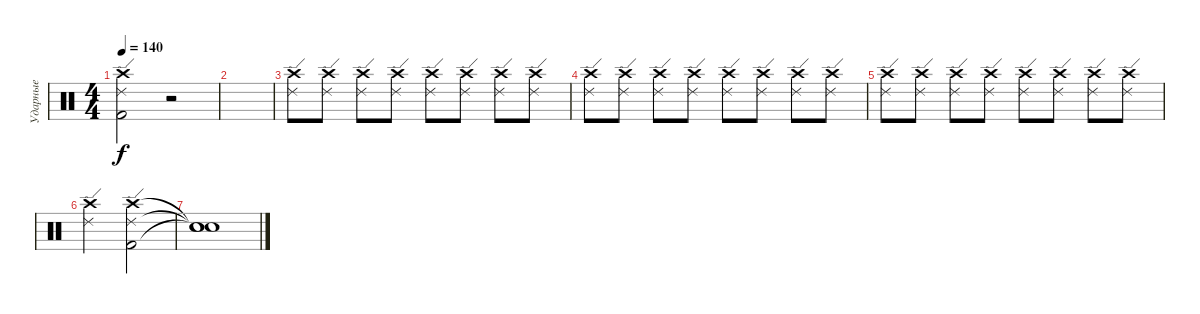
\track ("Ударные" "Ударные") {instrument percussion}
\staff {score}
\articulation defaults
\ts (4 4)
\tempo 140
\clef neutral
\ks c
("Crash high (hit)" "Ride (edge) 2" "Kick (hit) 2").2{dy f} r.2 |
|
("Ride (edge) 2" "Crash high (hit)").8 ("Ride (edge) 2" "Crash high (hit)").8 ("Ride (edge) 2" "Crash high (hit)").8 ("Ride (edge) 2" "Crash high (hit)").8 ("Ride (edge) 2" "Crash high (hit)").8 ("Ride (edge) 2" "Crash high (hit)").8 ("Ride (edge) 2" "Crash high (hit)").8 ("Ride (edge) 2" "Crash high (hit)").8 |
("Ride (edge) 2" "Crash high (hit)").8 ("Ride (edge) 2" "Crash high (hit)").8 ("Ride (edge) 2" "Crash high (hit)").8 ("Ride (edge) 2" "Crash high (hit)").8 ("Ride (edge) 2" "Crash high (hit)").8 ("Ride (edge) 2" "Crash high (hit)").8 ("Ride (edge) 2" "Crash high (hit)").8 ("Ride (edge) 2" "Crash high (hit)").8 |
("Ride (edge) 2" "Crash high (hit)").8 ("Ride (edge) 2" "Crash high (hit)").8 ("Ride (edge) 2" "Crash high (hit)").8 ("Ride (edge) 2" "Crash high (hit)").8 ("Ride (edge) 2" "Crash high (hit)").8 ("Ride (edge) 2" "Crash high (hit)").8 ("Ride (edge) 2" "Crash high (hit)").8 ("Ride (edge) 2" "Crash high (hit)").8 |
("Ride (edge) 2" "Crash high (hit)").2 ("Ride (edge) 2" "Crash high (hit)" "Kick (hit) 2").2 |
("Snare (hit)"{t} "Snare (hit)"{t} "Snare (hit)"{t}).1
